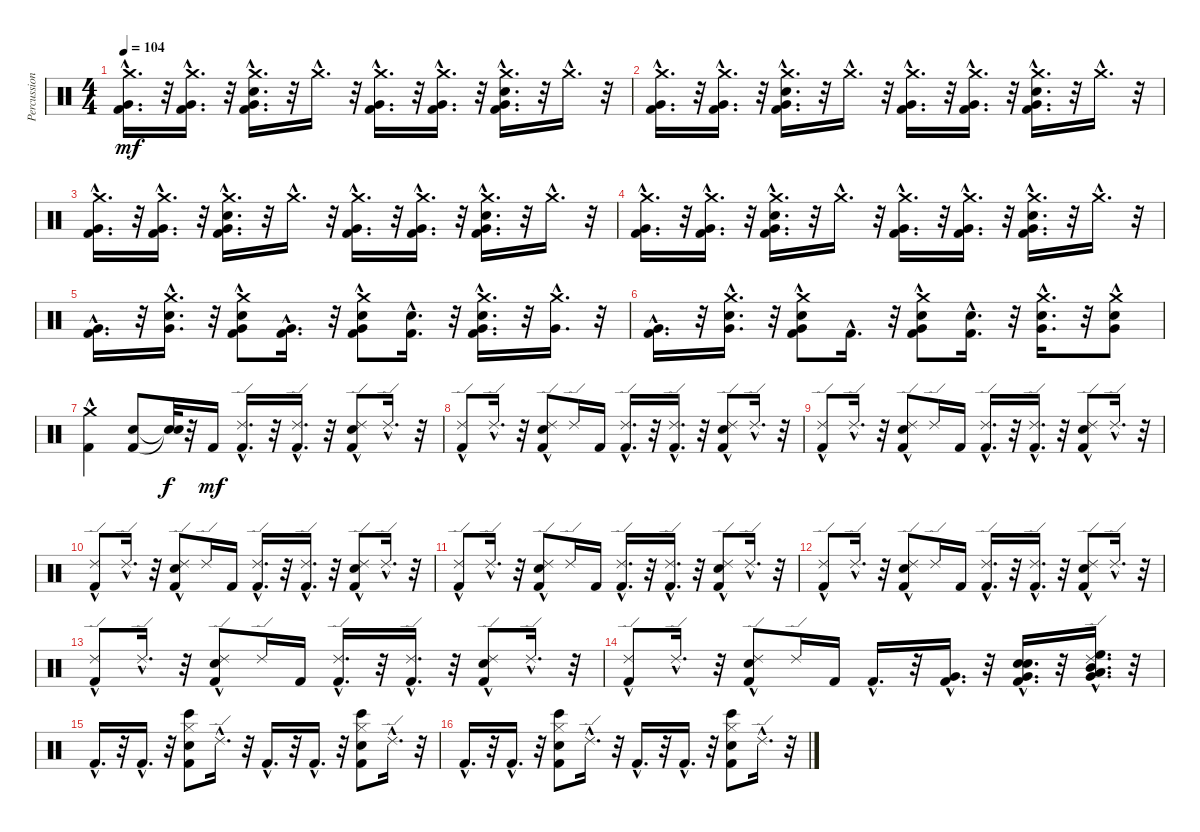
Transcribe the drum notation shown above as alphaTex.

\track ("Percussion" "Percussion") {instrument percussion}
\staff {score}
\articulation defaults
\ts (4 4)
\tempo 104
\clef neutral
\ks c
("Crash medium (hit)"{hac} "Very Low Tom (hit)"{hac} "Kick (hit) 2"{hac}).16{d dy mf} r.32 ("Crash medium (hit)"{hac} "Very Low Tom (hit)"{hac} "Kick (hit) 2"{hac}).16{d} r.32 ("Very Low Tom (hit)"{hac} "Crash medium (hit)"{hac} "Kick (hit) 2"{hac} "Electric Snare (hit)"{hac}).16{d} r.32 "Crash medium (hit)"{hac}.16{d} r.32 ("Crash medium (hit)"{hac} "Very Low Tom (hit)"{hac} "Kick (hit) 2"{hac}).16{d} r.32 ("Crash medium (hit)"{hac} "Very Low Tom (hit)"{hac} "Kick (hit) 2"{hac}).16{d} r.32 ("Very Low Tom (hit)"{hac} "Crash medium (hit)"{hac} "Kick (hit) 2"{hac} "Electric Snare (hit)"{hac}).16{d} r.32 "Crash medium (hit)"{hac}.16{d} r.32 |
("Crash medium (hit)"{hac} "Very Low Tom (hit)"{hac} "Kick (hit) 2"{hac}).16{d} r.32 ("Crash medium (hit)"{hac} "Very Low Tom (hit)"{hac} "Kick (hit) 2"{hac}).16{d} r.32 ("Very Low Tom (hit)"{hac} "Crash medium (hit)"{hac} "Kick (hit) 2"{hac} "Electric Snare (hit)"{hac}).16{d} r.32 "Crash medium (hit)"{hac}.16{d} r.32 ("Crash medium (hit)"{hac} "Very Low Tom (hit)"{hac} "Kick (hit) 2"{hac}).16{d} r.32 ("Crash medium (hit)"{hac} "Very Low Tom (hit)"{hac} "Kick (hit) 2"{hac}).16{d} r.32 ("Very Low Tom (hit)"{hac} "Crash medium (hit)"{hac} "Kick (hit) 2"{hac} "Electric Snare (hit)"{hac}).16{d} r.32 "Crash medium (hit)"{hac}.16{d} r.32 |
("Crash medium (hit)"{hac} "Very Low Tom (hit)"{hac} "Kick (hit) 2"{hac}).16{d} r.32 ("Crash medium (hit)"{hac} "Very Low Tom (hit)"{hac} "Kick (hit) 2"{hac}).16{d} r.32 ("Very Low Tom (hit)"{hac} "Crash medium (hit)"{hac} "Kick (hit) 2"{hac} "Electric Snare (hit)"{hac}).16{d} r.32 "Crash medium (hit)"{hac}.16{d} r.32 ("Crash medium (hit)"{hac} "Very Low Tom (hit)"{hac} "Kick (hit) 2"{hac}).16{d} r.32 ("Crash medium (hit)"{hac} "Very Low Tom (hit)"{hac} "Kick (hit) 2"{hac}).16{d} r.32 ("Very Low Tom (hit)"{hac} "Crash medium (hit)"{hac} "Kick (hit) 2"{hac} "Electric Snare (hit)"{hac}).16{d} r.32 "Crash medium (hit)"{hac}.16{d} r.32 |
("Crash medium (hit)"{hac} "Very Low Tom (hit)"{hac} "Kick (hit) 2"{hac}).16{d} r.32 ("Crash medium (hit)"{hac} "Very Low Tom (hit)"{hac} "Kick (hit) 2"{hac}).16{d} r.32 ("Very Low Tom (hit)"{hac} "Crash medium (hit)"{hac} "Kick (hit) 2"{hac} "Electric Snare (hit)"{hac}).16{d} r.32 "Crash medium (hit)"{hac}.16{d} r.32 ("Crash medium (hit)"{hac} "Very Low Tom (hit)"{hac} "Kick (hit) 2"{hac}).16{d} r.32 ("Crash medium (hit)"{hac} "Very Low Tom (hit)"{hac} "Kick (hit) 2"{hac}).16{d} r.32 ("Very Low Tom (hit)"{hac} "Crash medium (hit)"{hac} "Kick (hit) 2"{hac} "Electric Snare (hit)"{hac}).16{d} r.32 "Crash medium (hit)"{hac}.16{d} r.32 |
("Very Low Tom (hit)"{hac} "Kick (hit) 2"{hac}).16{d} r.32 ("Crash medium (hit)"{hac} "Electric Snare (hit)"{hac} "Very Low Tom (hit)"{hac}).16{d} r.32 ("Crash medium (hit)"{hac} "Very Low Tom (hit)"{hac} "Electric Snare (hit)"{hac} "Kick (hit) 2"{hac}).8 ("Kick (hit) 2"{hac} "Very Low Tom (hit)"{hac}).16{d} r.32 ("Kick (hit) 2"{hac} "Electric Snare (hit)"{hac} "Very Low Tom (hit)"{hac} "Crash medium (hit)"{hac}).8 ("Electric Snare (hit)"{hac} "Kick (hit) 2"{hac}).16{d} r.32 ("Kick (hit) 2"{hac} "Snare (hit) 2"{hac} "Very Low Tom (hit)"{hac} "Crash medium (hit)"{hac}).16{d} r.32 ("Very Low Tom (hit)"{hac} "Crash medium (hit)"{hac}).16{d} r.32 |
("Very Low Tom (hit)"{hac} "Kick (hit) 2"{hac}).16{d} r.32 ("Crash medium (hit)"{hac} "Electric Snare (hit)"{hac} "Very Low Tom (hit)"{hac}).16{d} r.32 ("Crash medium (hit)"{hac} "Very Low Tom (hit)"{hac} "Kick (hit) 2"{hac} "Snare (hit) 2"{hac}).8 "Kick (hit) 2"{hac}.16{d} r.32 ("Crash medium (hit)"{hac} "Very Low Tom (hit)"{hac} "Snare (hit) 2"{hac} "Kick (hit) 2"{hac}).8 ("Kick (hit) 2"{hac} "Snare (hit) 2"{hac}).16{d} r.32 ("Crash medium (hit)"{hac} "Electric Snare (hit)"{hac} "Very Low Tom (hit)"{hac}).16{d} r.32 ("Crash medium (hit)"{hac} "Electric Snare (hit)" "Very Low Tom (hit)"{hac}).8 |
("Crash medium (hit)" "Kick (hit) 2"{hac}).4 ("Kick (hit) 2" "Hand Clap (hit)").8 ("Snare (hit)"{t} "Snare (hit)"{t}).32{dy f} r.32 "Kick (hit) 2".16{dy mf} ("Ride (edge) 2"{hac} "Kick (hit) 2"{hac}).16{d} r.32 ("Ride (edge) 2"{hac} "Kick (hit) 2"{hac}).16{d} r.32 ("Kick (hit) 2"{hac} "Hand Clap (hit)" "Ride (edge) 2"{hac}).8 "Ride (edge) 2"{hac}.16{d} r.32 |
("Ride (edge) 2"{hac} "Kick (hit) 2"{hac}).8 "Ride (edge) 2"{hac}.16{d} r.32 ("Kick (hit) 2"{hac} "Ride (edge) 2" "Hand Clap (hit)").8 "Ride (edge) 2".16 "Kick (hit) 2".16 ("Ride (edge) 2"{hac} "Kick (hit) 2"{hac}).16{d} r.32 ("Ride (edge) 2"{hac} "Kick (hit) 2"{hac}).16{d} r.32 ("Ride (edge) 2"{hac} "Hand Clap (hit)" "Kick (hit) 2"{hac}).8 "Ride (edge) 2"{hac}.16{d} r.32 |
("Kick (hit) 2"{hac} "Ride (edge) 2"{hac}).8 "Ride (edge) 2"{hac}.16{d} r.32 ("Hand Clap (hit)" "Ride (edge) 2" "Kick (hit) 2"{hac}).8 "Ride (edge) 2".16 "Kick (hit) 2".16 ("Kick (hit) 2"{hac} "Ride (edge) 2"{hac}).16{d} r.32 ("Kick (hit) 2"{hac} "Ride (edge) 2"{hac}).16{d} r.32 ("Kick (hit) 2"{hac} "Hand Clap (hit)" "Ride (edge) 2"{hac}).8 "Ride (edge) 2"{hac}.16{d} r.32 |
("Ride (edge) 2"{hac} "Kick (hit) 2"{hac}).8 "Ride (edge) 2"{hac}.16{d} r.32 ("Kick (hit) 2"{hac} "Ride (edge) 2" "Hand Clap (hit)").8 "Ride (edge) 2".16 "Kick (hit) 2".16 ("Ride (edge) 2"{hac} "Kick (hit) 2"{hac}).16{d} r.32 ("Ride (edge) 2"{hac} "Kick (hit) 2"{hac}).16{d} r.32 ("Ride (edge) 2"{hac} "Hand Clap (hit)" "Kick (hit) 2"{hac}).8 "Ride (edge) 2"{hac}.16{d} r.32 |
("Ride (edge) 2"{hac} "Kick (hit) 2"{hac}).8 "Ride (edge) 2"{hac}.16{d} r.32 ("Kick (hit) 2"{hac} "Ride (edge) 2" "Hand Clap (hit)").8 "Ride (edge) 2".16 "Kick (hit) 2".16 ("Ride (edge) 2"{hac} "Kick (hit) 2"{hac}).16{d} r.32 ("Ride (edge) 2"{hac} "Kick (hit) 2"{hac}).16{d} r.32 ("Ride (edge) 2"{hac} "Hand Clap (hit)" "Kick (hit) 2"{hac}).8 "Ride (edge) 2"{hac}.16{d} r.32 |
("Ride (edge) 2"{hac} "Kick (hit) 2"{hac}).8 "Ride (edge) 2"{hac}.16{d} r.32 ("Kick (hit) 2"{hac} "Ride (edge) 2" "Hand Clap (hit)").8 "Ride (edge) 2".16 "Kick (hit) 2".16 ("Ride (edge) 2"{hac} "Kick (hit) 2"{hac}).16{d} r.32 ("Ride (edge) 2"{hac} "Kick (hit) 2"{hac}).16{d} r.32 ("Ride (edge) 2"{hac} "Hand Clap (hit)" "Kick (hit) 2"{hac}).8 "Ride (edge) 2"{hac}.16{d} r.32 |
("Ride (edge) 2"{hac} "Kick (hit) 2"{hac}).8 "Ride (edge) 2"{hac}.16{d} r.32 ("Kick (hit) 2"{hac} "Ride (edge) 2" "Hand Clap (hit)").8 "Ride (edge) 2".16 "Kick (hit) 2".16 ("Ride (edge) 2"{hac} "Kick (hit) 2"{hac}).16{d} r.32 ("Ride (edge) 2"{hac} "Kick (hit) 2"{hac}).16{d} r.32 ("Ride (edge) 2"{hac} "Hand Clap (hit)" "Kick (hit) 2"{hac}).8 "Ride (edge) 2"{hac}.16{d} r.32 |
("Kick (hit) 2"{hac} "Ride (edge) 2"{hac}).8 "Ride (edge) 2"{hac}.16{d} r.32 ("Hand Clap (hit)" "Ride (edge) 2" "Kick (hit) 2"{hac}).8 "Ride (edge) 2".16 "Kick (hit) 2".16 "Kick (hit) 2"{hac}.16{d} r.32 ("Very Low Tom (hit)"{hac} "Kick (hit) 2"{hac}).16{d} r.32 ("Very Low Tom (hit)"{hac} "Snare (hit) 2"{hac} "Kick (hit) 2"{hac} "Electric Snare (hit)"{hac}).16{d} r.32 ("Low Floor Tom (hit)"{hac} "High Floor Tom (hit)"{hac} "Mid Tom (hit)"{hac} "Ride (edge) 2"{hac} "Very Low Tom (hit)"{hac}).16{d} r.32 |
"Kick (hit) 2"{hac}.16{d} r.32 "Kick (hit) 2"{hac}.16{d} r.32 ("Kick (hit) 2" "Hand Clap (hit)" "Hi-Hat (closed)" "Bongo High (hit)").8 "Ride (edge) 2"{hac}.16{d} r.32 "Kick (hit) 2"{hac}.16{d} r.32 "Kick (hit) 2"{hac}.16{d} r.32 ("Bongo High (hit)" "Hi-Hat (closed)" "Hand Clap (hit)" "Kick (hit) 2").8 "Ride (edge) 2"{hac}.16{d} r.32 |
"Kick (hit) 2"{hac}.16{d} r.32 "Kick (hit) 2"{hac}.16{d} r.32 ("Kick (hit) 2" "Hand Clap (hit)" "Hi-Hat (closed)" "Bongo High (hit)").8 "Ride (edge) 2"{hac}.16{d} r.32 "Kick (hit) 2"{hac}.16{d} r.32 "Kick (hit) 2"{hac}.16{d} r.32 ("Bongo High (hit)" "Hi-Hat (closed)" "Hand Clap (hit)" "Kick (hit) 2").8 "Ride (edge) 2"{hac}.16{d} r.32
